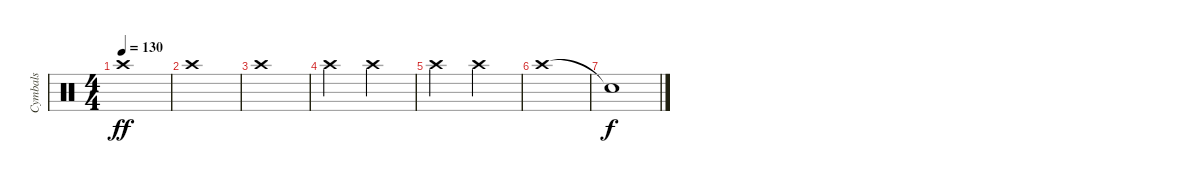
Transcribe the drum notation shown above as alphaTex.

\track ("Cymbals" "Cymbals") {instrument percussion}
\staff {score}
\articulation defaults
\ts (4 4)
\tempo 130
\clef neutral
\ks c "Crash high (hit)".1{dy ff}
|
"Crash high (hit)".1 |
"Crash high (hit)".1 |
"Crash high (hit)".2 "Crash high (hit)".2 |
"Crash high (hit)".2 "Crash high (hit)".2 |
"Crash high (hit)".1 |
"Snare (hit)"{t}.1{dy f}
